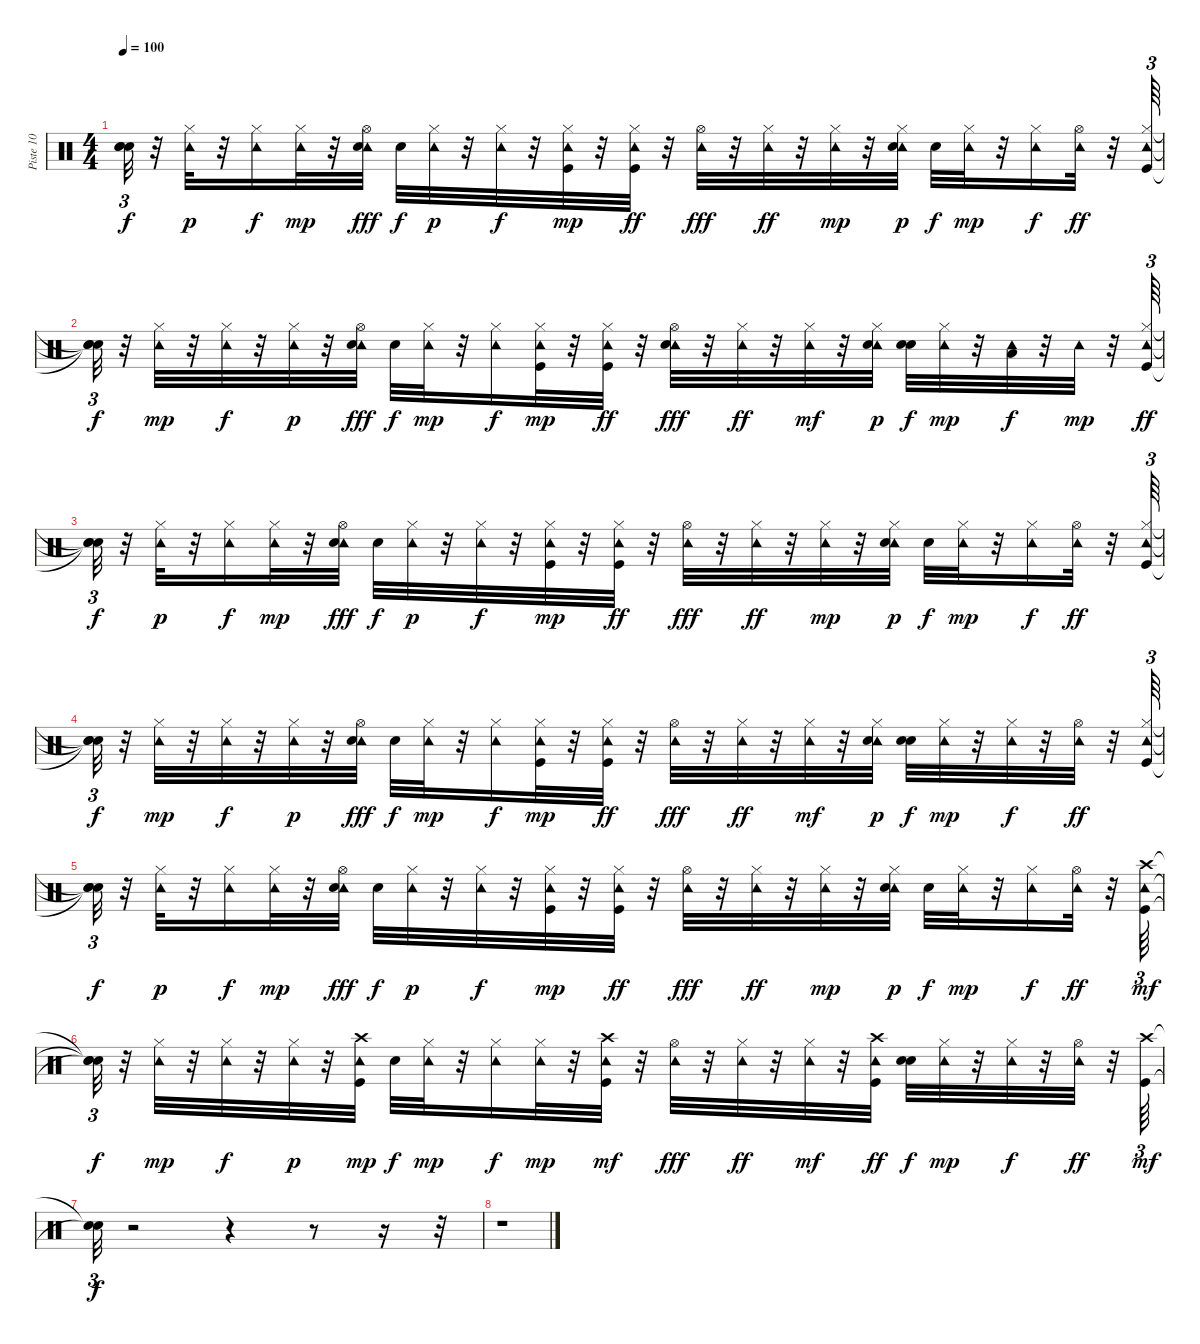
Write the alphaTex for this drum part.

\track ("Piste 10" "Piste 10") {instrument percussion}
\staff {score}
\articulation defaults
\ts (4 4)
\tempo 100
\clef neutral
\ks c
("Snare (hit)"{t} "Snare (hit)"{t} "Snare (hit)"{t}).32{tu (3 2) dy f} r.32 ("Tambourine (hit)" "Hi-Hat (closed)").32{dy p} r.32 ("Tambourine (hit)" "Hi-Hat (closed)").16{dy f} ("Tambourine (hit)" "Hi-Hat (closed)").32{dy mp} r.32 ("Tambourine (hit)" "Hi-Hat (open)" "Electric Snare (hit)").32{dy fff} "Hand Clap (hit)".32{dy f} ("Tambourine (hit)" "Hi-Hat (closed)").32{dy p} r.32 ("Tambourine (hit)" "Hi-Hat (closed)").32{dy f} r.32 ("Tambourine (hit)" "Hi-Hat (closed)" "Kick (hit)").32{dy mp} r.32 ("Tambourine (hit)" "Hi-Hat (closed)" "Kick (hit)").32{dy ff} r.32 ("Tambourine (hit)" "Hi-Hat (open)").32{dy fff} r.32 ("Tambourine (hit)" "Hi-Hat (closed)").32{dy ff} r.32 ("Tambourine (hit)" "Hi-Hat (closed)").32{dy mp} r.32 ("Tambourine (hit)" "Hi-Hat (closed)" "Electric Snare (hit)").32{dy p} "Hand Clap (hit)".32{dy f} ("Tambourine (hit)" "Hi-Hat (closed)").32{dy mp} r.32 ("Tambourine (hit)" "Hi-Hat (closed)").16{dy f} ("Tambourine (hit)" "Hi-Hat (open)").32{dy ff} r.32 ("Tambourine (hit)" "Kick (hit)" "Hi-Hat (closed)").64{tu (3 2)} |
("Snare (hit)"{t} "Snare (hit)"{t} "Snare (hit)"{t}).32{tu (3 2) dy f} r.32 ("Tambourine (hit)" "Hi-Hat (closed)").32{dy mp} r.32 ("Tambourine (hit)" "Hi-Hat (closed)").32{dy f} r.32 ("Tambourine (hit)" "Hi-Hat (closed)").32{dy p} r.32 ("Tambourine (hit)" "Hi-Hat (open)" "Electric Snare (hit)").32{dy fff} "Hand Clap (hit)".32{dy f} ("Tambourine (hit)" "Hi-Hat (closed)").32{dy mp} r.32 ("Tambourine (hit)" "Hi-Hat (closed)").16{dy f} ("Tambourine (hit)" "Hi-Hat (closed)" "Kick (hit)").32{dy mp} r.32 ("Tambourine (hit)" "Kick (hit)" "Hi-Hat (closed)").32{dy ff} r.32 ("Tambourine (hit)" "Hi-Hat (open)" "Electric Snare (hit)").32{dy fff} r.32 ("Tambourine (hit)" "Hi-Hat (closed)").32{dy ff} r.32 ("Tambourine (hit)" "Hi-Hat (closed)").32{dy mf} r.32 ("Tambourine (hit)" "Hi-Hat (closed)" "Electric Snare (hit)").32{dy p} ("Hand Clap (hit)" "Hand Clap (hit)").32{dy f} ("Tambourine (hit)" "Hi-Hat (closed)").32{dy mp} r.32 ("Tambourine (hit)" "Low Tom (hit)").32{dy f} r.32 "Tambourine (hit)".32{dy mp} r.32 ("Tambourine (hit)" "Kick (hit)" "Hi-Hat (closed)").64{tu (3 2) dy ff} |
("Snare (hit)"{t} "Snare (hit)"{t} "Snare (hit)"{t}).32{tu (3 2) dy f} r.32 ("Tambourine (hit)" "Hi-Hat (closed)").32{dy p} r.32 ("Tambourine (hit)" "Hi-Hat (closed)").16{dy f} ("Tambourine (hit)" "Hi-Hat (closed)").32{dy mp} r.32 ("Tambourine (hit)" "Hi-Hat (open)" "Electric Snare (hit)").32{dy fff} "Hand Clap (hit)".32{dy f} ("Tambourine (hit)" "Hi-Hat (closed)").32{dy p} r.32 ("Tambourine (hit)" "Hi-Hat (closed)").32{dy f} r.32 ("Tambourine (hit)" "Hi-Hat (closed)" "Kick (hit)").32{dy mp} r.32 ("Tambourine (hit)" "Hi-Hat (closed)" "Kick (hit)").32{dy ff} r.32 ("Tambourine (hit)" "Hi-Hat (open)").32{dy fff} r.32 ("Tambourine (hit)" "Hi-Hat (closed)").32{dy ff} r.32 ("Tambourine (hit)" "Hi-Hat (closed)").32{dy mp} r.32 ("Tambourine (hit)" "Hi-Hat (closed)" "Electric Snare (hit)").32{dy p} "Hand Clap (hit)".32{dy f} ("Tambourine (hit)" "Hi-Hat (closed)").32{dy mp} r.32 ("Tambourine (hit)" "Hi-Hat (closed)").16{dy f} ("Tambourine (hit)" "Hi-Hat (open)").32{dy ff} r.32 ("Tambourine (hit)" "Kick (hit)" "Hi-Hat (closed)").64{tu (3 2)} |
("Snare (hit)"{t} "Snare (hit)"{t} "Snare (hit)"{t}).32{tu (3 2) dy f} r.32 ("Tambourine (hit)" "Hi-Hat (closed)").32{dy mp} r.32 ("Tambourine (hit)" "Hi-Hat (closed)").32{dy f} r.32 ("Tambourine (hit)" "Hi-Hat (closed)").32{dy p} r.32 ("Tambourine (hit)" "Hi-Hat (open)" "Electric Snare (hit)").32{dy fff} "Hand Clap (hit)".32{dy f} ("Tambourine (hit)" "Hi-Hat (closed)").32{dy mp} r.32 ("Tambourine (hit)" "Hi-Hat (closed)").16{dy f} ("Tambourine (hit)" "Hi-Hat (closed)" "Kick (hit)").32{dy mp} r.32 ("Tambourine (hit)" "Kick (hit)" "Hi-Hat (closed)").32{dy ff} r.32 ("Tambourine (hit)" "Hi-Hat (open)").32{dy fff} r.32 ("Tambourine (hit)" "Hi-Hat (closed)").32{dy ff} r.32 ("Tambourine (hit)" "Hi-Hat (closed)").32{dy mf} r.32 ("Tambourine (hit)" "Hi-Hat (closed)" "Electric Snare (hit)").32{dy p} ("Hand Clap (hit)" "Hand Clap (hit)").32{dy f} ("Tambourine (hit)" "Hi-Hat (closed)").32{dy mp} r.32 ("Tambourine (hit)" "Hi-Hat (closed)").32{dy f} r.32 ("Tambourine (hit)" "Hi-Hat (open)").32{dy ff} r.32 ("Tambourine (hit)" "Kick (hit)" "Hi-Hat (closed)").64{tu (3 2)} |
("Snare (hit)"{t} "Snare (hit)"{t} "Snare (hit)"{t}).32{tu (3 2) dy f} r.32 ("Tambourine (hit)" "Hi-Hat (closed)").32{dy p} r.32 ("Tambourine (hit)" "Hi-Hat (closed)").16{dy f} ("Tambourine (hit)" "Hi-Hat (closed)").32{dy mp} r.32 ("Tambourine (hit)" "Hi-Hat (open)" "Electric Snare (hit)").32{dy fff} "Hand Clap (hit)".32{dy f} ("Tambourine (hit)" "Hi-Hat (closed)").32{dy p} r.32 ("Tambourine (hit)" "Hi-Hat (closed)").32{dy f} r.32 ("Tambourine (hit)" "Hi-Hat (closed)" "Kick (hit)").32{dy mp} r.32 ("Tambourine (hit)" "Hi-Hat (closed)" "Kick (hit)").32{dy ff} r.32 ("Tambourine (hit)" "Hi-Hat (open)").32{dy fff} r.32 ("Tambourine (hit)" "Hi-Hat (closed)").32{dy ff} r.32 ("Tambourine (hit)" "Hi-Hat (closed)").32{dy mp} r.32 ("Tambourine (hit)" "Hi-Hat (closed)" "Electric Snare (hit)").32{dy p} "Hand Clap (hit)".32{dy f} ("Tambourine (hit)" "Hi-Hat (closed)").32{dy mp} r.32 ("Tambourine (hit)" "Hi-Hat (closed)").16{dy f} ("Tambourine (hit)" "Hi-Hat (open)").32{dy ff} r.32 ("Tambourine (hit)" "Kick (hit)" "Crash high (hit)").64{tu (3 2) dy mf} |
("Snare (hit)"{t} "Snare (hit)"{t} "Snare (hit)"{t}).32{tu (3 2) dy f} r.32 ("Tambourine (hit)" "Hi-Hat (closed)").32{dy mp} r.32 ("Tambourine (hit)" "Hi-Hat (closed)").32{dy f} r.32 ("Tambourine (hit)" "Hi-Hat (closed)").32{dy p} r.32 ("Tambourine (hit)" "Crash high (hit)" "Kick (hit)").32{dy mp} "Hand Clap (hit)".32{dy f} ("Tambourine (hit)" "Hi-Hat (closed)").32{dy mp} r.32 ("Tambourine (hit)" "Hi-Hat (closed)").16{dy f} ("Tambourine (hit)" "Hi-Hat (closed)").32{dy mp} r.32 ("Tambourine (hit)" "Kick (hit)" "Crash high (hit)").32{dy mf} r.32 ("Tambourine (hit)" "Hi-Hat (open)").32{dy fff} r.32 ("Tambourine (hit)" "Hi-Hat (closed)").32{dy ff} r.32 ("Tambourine (hit)" "Hi-Hat (closed)").32{dy mf} r.32 ("Tambourine (hit)" "Crash high (hit)" "Kick (hit)").32{dy ff} ("Hand Clap (hit)" "Hand Clap (hit)").32{dy f} ("Tambourine (hit)" "Hi-Hat (closed)").32{dy mp} r.32 ("Tambourine (hit)" "Hi-Hat (closed)").32{dy f} r.32 ("Tambourine (hit)" "Hi-Hat (open)").32{dy ff} r.32 ("Kick (hit)" "Crash high (hit)").64{tu (3 2) dy mf} |
("Snare (hit)"{t} "Snare (hit)"{t}).32{tu (3 2) dy f} r.2 r.4 r.8 r.16 r.32 |
r.1
